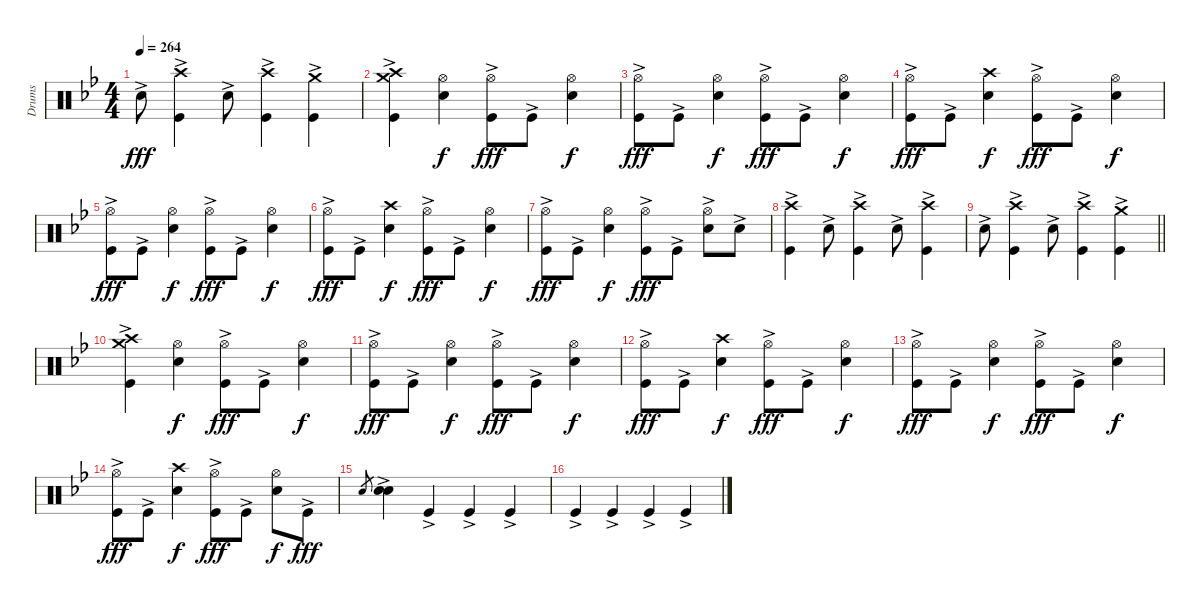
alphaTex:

\track ("Drums" "Drums") {instrument percussion}
\staff {score}
\articulation defaults
\ts (4 4)
\tempo 264
\clef neutral
\ks gminor "Snare (hit) 2"{ac}.8{dy fff}
("Crash high (hit)" "Kick (hit)"{ac}).4 "Snare (hit) 2"{ac}.8 ("Crash high (hit)" "Kick (hit)"{ac}).4 ("Crash medium (hit)" "Kick (hit)"{ac}).4 |
("Crash high (hit)" "Crash medium (hit)" "Kick (hit)"{ac}).4 ("Hi-Hat (open)" "Snare (hit) 2").4{dy f} ("Hi-Hat (open)" "Kick (hit)"{ac}).8{dy fff} "Kick (hit)"{ac}.8 ("Hi-Hat (open)" "Snare (hit) 2").4{dy f} |
("Hi-Hat (open)" "Kick (hit)"{ac}).8{dy fff} "Kick (hit)"{ac}.8 ("Hi-Hat (open)" "Snare (hit) 2").4{dy f} ("Hi-Hat (open)" "Kick (hit)"{ac}).8{dy fff} "Kick (hit)"{ac}.8 ("Hi-Hat (open)" "Snare (hit) 2").4{dy f} |
("Hi-Hat (open)" "Kick (hit)"{ac}).8{dy fff} "Kick (hit)"{ac}.8 ("Crash high (hit)" "Snare (hit) 2").4{dy f} ("Hi-Hat (open)" "Kick (hit)"{ac}).8{dy fff} "Kick (hit)"{ac}.8 ("Hi-Hat (open)" "Snare (hit) 2").4{dy f} |
("Hi-Hat (open)" "Kick (hit)"{ac}).8{dy fff} "Kick (hit)"{ac}.8 ("Hi-Hat (open)" "Snare (hit) 2").4{dy f} ("Hi-Hat (open)" "Kick (hit)"{ac}).8{dy fff} "Kick (hit)"{ac}.8 ("Hi-Hat (open)" "Snare (hit) 2").4{dy f} |
("Hi-Hat (open)" "Kick (hit)"{ac}).8{dy fff} "Kick (hit)"{ac}.8 ("Crash high (hit)" "Snare (hit) 2").4{dy f} ("Hi-Hat (open)" "Kick (hit)"{ac}).8{dy fff} "Kick (hit)"{ac}.8 ("Hi-Hat (open)" "Snare (hit) 2").4{dy f} |
("Hi-Hat (open)" "Kick (hit)"{ac}).8{dy fff} "Kick (hit)"{ac}.8 ("Hi-Hat (open)" "Snare (hit) 2").4{dy f} ("Hi-Hat (open)" "Kick (hit)"{ac}).8{dy fff} "Kick (hit)"{ac}.8 ("Hi-Hat (open)" "Snare (hit) 2"{ac}).8 "Snare (hit) 2"{ac}.8 |
("Crash high (hit)" "Kick (hit)"{ac}).4 "Snare (hit) 2"{ac}.8 ("Crash high (hit)" "Kick (hit)"{ac}).4 "Snare (hit) 2"{ac}.8 ("Crash high (hit)" "Kick (hit)"{ac}).4 |
\barLineRight lightlight "Snare (hit) 2"{ac}.8
("Crash high (hit)" "Kick (hit)"{ac}).4 "Snare (hit) 2"{ac}.8 ("Crash high (hit)" "Kick (hit)"{ac}).4 ("Crash medium (hit)" "Kick (hit)"{ac}).4 |
("Crash high (hit)" "Crash medium (hit)" "Kick (hit)"{ac}).4 ("Hi-Hat (open)" "Snare (hit) 2").4{dy f} ("Hi-Hat (open)" "Kick (hit)"{ac}).8{dy fff} "Kick (hit)"{ac}.8 ("Hi-Hat (open)" "Snare (hit) 2").4{dy f} |
("Hi-Hat (open)" "Kick (hit)"{ac}).8{dy fff} "Kick (hit)"{ac}.8 ("Hi-Hat (open)" "Snare (hit) 2").4{dy f} ("Hi-Hat (open)" "Kick (hit)"{ac}).8{dy fff} "Kick (hit)"{ac}.8 ("Hi-Hat (open)" "Snare (hit) 2").4{dy f} |
("Hi-Hat (open)" "Kick (hit)"{ac}).8{dy fff} "Kick (hit)"{ac}.8 ("Crash high (hit)" "Snare (hit) 2").4{dy f} ("Hi-Hat (open)" "Kick (hit)"{ac}).8{dy fff} "Kick (hit)"{ac}.8 ("Hi-Hat (open)" "Snare (hit) 2").4{dy f} |
("Hi-Hat (open)" "Kick (hit)"{ac}).8{dy fff} "Kick (hit)"{ac}.8 ("Hi-Hat (open)" "Snare (hit) 2").4{dy f} ("Hi-Hat (open)" "Kick (hit)"{ac}).8{dy fff} "Kick (hit)"{ac}.8 ("Hi-Hat (open)" "Snare (hit) 2").4{dy f} |
("Hi-Hat (open)" "Kick (hit)"{ac}).8{dy fff} "Kick (hit)"{ac}.8 ("Crash high (hit)" "Snare (hit) 2").4{dy f} ("Hi-Hat (open)" "Kick (hit)"{ac}).8{dy fff} "Kick (hit)"{ac}.8 ("Hi-Hat (open)" "Snare (hit) 2").8{dy f} "Kick (hit)"{ac}.8{dy fff} |
"Snare (hit) 2".8{gr} ("Snare (hit) 2"{ac} "Snare (hit) 2").4 "Kick (hit)"{ac}.4 "Kick (hit)"{ac}.4 "Kick (hit)"{ac}.4 |
"Kick (hit)"{ac}.4 "Kick (hit)"{ac}.4 "Kick (hit)"{ac}.4 "Kick (hit)"{ac}.4
